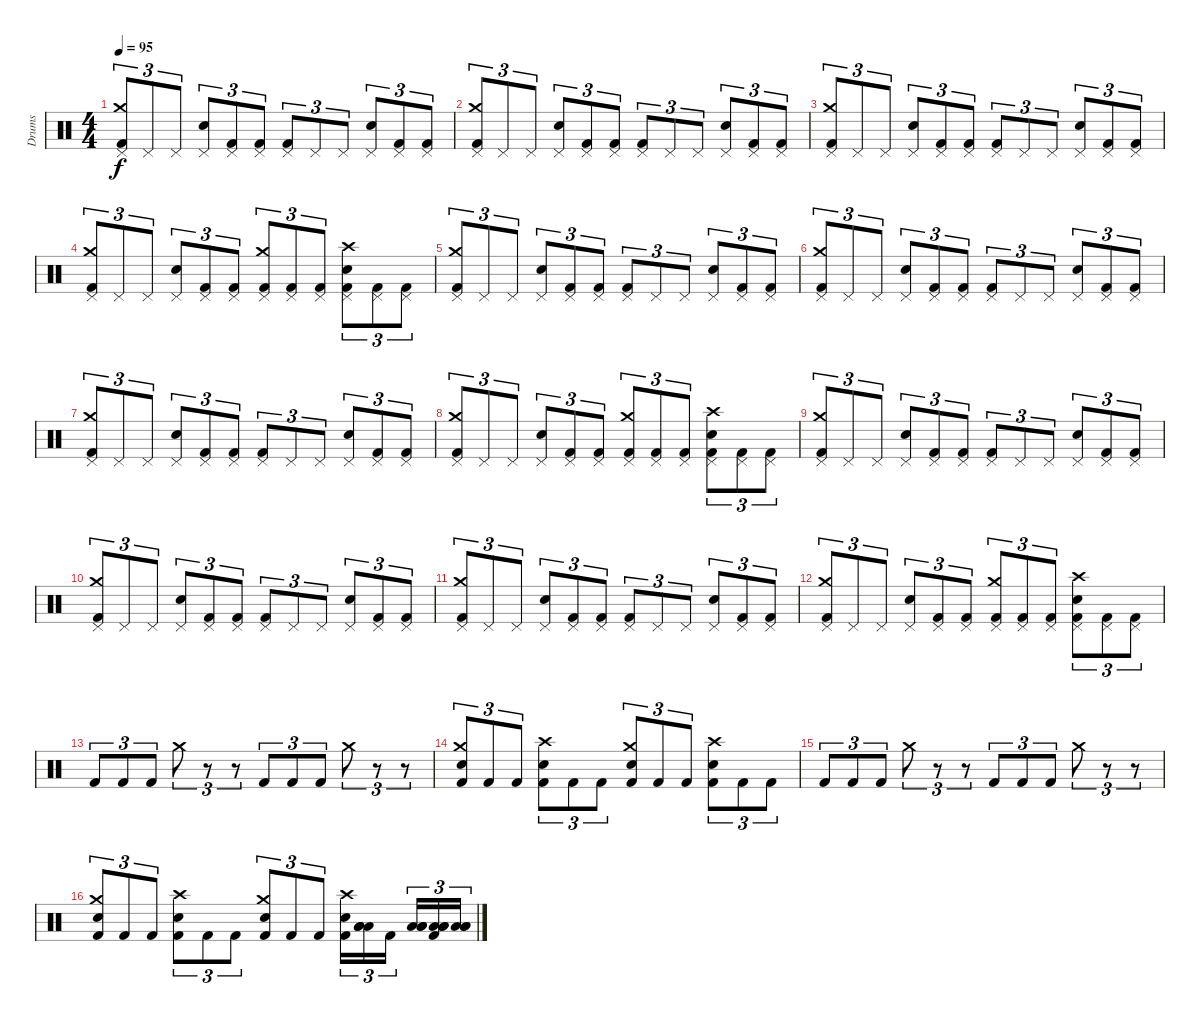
\track ("Drums" "Drums") {instrument percussion}
\staff {score}
\articulation defaults
\ts (4 4)
\tempo 95
\clef neutral
\ks c
("Kick (hit) 2" "Crash medium (hit)" "Pedal Hi-Hat (hit)").8{tu (3 2) dy f} "Pedal Hi-Hat (hit)".8{tu (3 2)} "Pedal Hi-Hat (hit)".8{tu (3 2)} ("Snare (hit) 2" "Pedal Hi-Hat (hit)").8{tu (3 2)} ("Kick (hit) 2" "Pedal Hi-Hat (hit)").8{tu (3 2)} ("Kick (hit) 2" "Pedal Hi-Hat (hit)").8{tu (3 2)} ("Kick (hit) 2" "Pedal Hi-Hat (hit)").8{tu (3 2)} "Pedal Hi-Hat (hit)".8{tu (3 2)} "Pedal Hi-Hat (hit)".8{tu (3 2)} ("Snare (hit) 2" "Pedal Hi-Hat (hit)").8{tu (3 2)} ("Kick (hit) 2" "Pedal Hi-Hat (hit)").8{tu (3 2)} ("Kick (hit) 2" "Pedal Hi-Hat (hit)").8{tu (3 2)} |
("Kick (hit) 2" "Crash medium (hit)" "Pedal Hi-Hat (hit)").8{tu (3 2)} "Pedal Hi-Hat (hit)".8{tu (3 2)} "Pedal Hi-Hat (hit)".8{tu (3 2)} ("Snare (hit) 2" "Pedal Hi-Hat (hit)").8{tu (3 2)} ("Kick (hit) 2" "Pedal Hi-Hat (hit)").8{tu (3 2)} ("Kick (hit) 2" "Pedal Hi-Hat (hit)").8{tu (3 2)} ("Kick (hit) 2" "Pedal Hi-Hat (hit)").8{tu (3 2)} "Pedal Hi-Hat (hit)".8{tu (3 2)} "Pedal Hi-Hat (hit)".8{tu (3 2)} ("Snare (hit) 2" "Pedal Hi-Hat (hit)").8{tu (3 2)} ("Kick (hit) 2" "Pedal Hi-Hat (hit)").8{tu (3 2)} ("Kick (hit) 2" "Pedal Hi-Hat (hit)").8{tu (3 2)} |
("Kick (hit) 2" "Crash medium (hit)" "Pedal Hi-Hat (hit)").8{tu (3 2)} "Pedal Hi-Hat (hit)".8{tu (3 2)} "Pedal Hi-Hat (hit)".8{tu (3 2)} ("Snare (hit) 2" "Pedal Hi-Hat (hit)").8{tu (3 2)} ("Kick (hit) 2" "Pedal Hi-Hat (hit)").8{tu (3 2)} ("Kick (hit) 2" "Pedal Hi-Hat (hit)").8{tu (3 2)} ("Kick (hit) 2" "Pedal Hi-Hat (hit)").8{tu (3 2)} "Pedal Hi-Hat (hit)".8{tu (3 2)} "Pedal Hi-Hat (hit)".8{tu (3 2)} ("Snare (hit) 2" "Pedal Hi-Hat (hit)").8{tu (3 2)} ("Kick (hit) 2" "Pedal Hi-Hat (hit)").8{tu (3 2)} ("Kick (hit) 2" "Pedal Hi-Hat (hit)").8{tu (3 2)} |
("Kick (hit) 2" "Crash medium (hit)" "Pedal Hi-Hat (hit)").8{tu (3 2)} "Pedal Hi-Hat (hit)".8{tu (3 2)} "Pedal Hi-Hat (hit)".8{tu (3 2)} ("Snare (hit) 2" "Pedal Hi-Hat (hit)").8{tu (3 2)} ("Kick (hit) 2" "Pedal Hi-Hat (hit)").8{tu (3 2)} ("Kick (hit) 2" "Pedal Hi-Hat (hit)").8{tu (3 2)} ("Kick (hit) 2" "Crash medium (hit)" "Pedal Hi-Hat (hit)").8{tu (3 2)} ("Kick (hit) 2" "Pedal Hi-Hat (hit)").8{tu (3 2)} ("Kick (hit) 2" "Pedal Hi-Hat (hit)").8{tu (3 2)} ("Kick (hit) 2" "Crash high (hit)" "Snare (hit) 2" "Pedal Hi-Hat (hit)").8{tu (3 2)} ("Kick (hit) 2" "Pedal Hi-Hat (hit)").8{tu (3 2)} ("Kick (hit) 2" "Pedal Hi-Hat (hit)").8{tu (3 2)} |
("Kick (hit) 2" "Crash medium (hit)" "Pedal Hi-Hat (hit)").8{tu (3 2)} "Pedal Hi-Hat (hit)".8{tu (3 2)} "Pedal Hi-Hat (hit)".8{tu (3 2)} ("Snare (hit) 2" "Pedal Hi-Hat (hit)").8{tu (3 2)} ("Kick (hit) 2" "Pedal Hi-Hat (hit)").8{tu (3 2)} ("Kick (hit) 2" "Pedal Hi-Hat (hit)").8{tu (3 2)} ("Kick (hit) 2" "Pedal Hi-Hat (hit)").8{tu (3 2)} "Pedal Hi-Hat (hit)".8{tu (3 2)} "Pedal Hi-Hat (hit)".8{tu (3 2)} ("Snare (hit) 2" "Pedal Hi-Hat (hit)").8{tu (3 2)} ("Kick (hit) 2" "Pedal Hi-Hat (hit)").8{tu (3 2)} ("Kick (hit) 2" "Pedal Hi-Hat (hit)").8{tu (3 2)} |
("Kick (hit) 2" "Crash medium (hit)" "Pedal Hi-Hat (hit)").8{tu (3 2)} "Pedal Hi-Hat (hit)".8{tu (3 2)} "Pedal Hi-Hat (hit)".8{tu (3 2)} ("Snare (hit) 2" "Pedal Hi-Hat (hit)").8{tu (3 2)} ("Kick (hit) 2" "Pedal Hi-Hat (hit)").8{tu (3 2)} ("Kick (hit) 2" "Pedal Hi-Hat (hit)").8{tu (3 2)} ("Kick (hit) 2" "Pedal Hi-Hat (hit)").8{tu (3 2)} "Pedal Hi-Hat (hit)".8{tu (3 2)} "Pedal Hi-Hat (hit)".8{tu (3 2)} ("Snare (hit) 2" "Pedal Hi-Hat (hit)").8{tu (3 2)} ("Kick (hit) 2" "Pedal Hi-Hat (hit)").8{tu (3 2)} ("Kick (hit) 2" "Pedal Hi-Hat (hit)").8{tu (3 2)} |
("Kick (hit) 2" "Crash medium (hit)" "Pedal Hi-Hat (hit)").8{tu (3 2)} "Pedal Hi-Hat (hit)".8{tu (3 2)} "Pedal Hi-Hat (hit)".8{tu (3 2)} ("Snare (hit) 2" "Pedal Hi-Hat (hit)").8{tu (3 2)} ("Kick (hit) 2" "Pedal Hi-Hat (hit)").8{tu (3 2)} ("Kick (hit) 2" "Pedal Hi-Hat (hit)").8{tu (3 2)} ("Kick (hit) 2" "Pedal Hi-Hat (hit)").8{tu (3 2)} "Pedal Hi-Hat (hit)".8{tu (3 2)} "Pedal Hi-Hat (hit)".8{tu (3 2)} ("Snare (hit) 2" "Pedal Hi-Hat (hit)").8{tu (3 2)} ("Kick (hit) 2" "Pedal Hi-Hat (hit)").8{tu (3 2)} ("Kick (hit) 2" "Pedal Hi-Hat (hit)").8{tu (3 2)} |
("Kick (hit) 2" "Crash medium (hit)" "Pedal Hi-Hat (hit)").8{tu (3 2)} "Pedal Hi-Hat (hit)".8{tu (3 2)} "Pedal Hi-Hat (hit)".8{tu (3 2)} ("Snare (hit) 2" "Pedal Hi-Hat (hit)").8{tu (3 2)} ("Kick (hit) 2" "Pedal Hi-Hat (hit)").8{tu (3 2)} ("Kick (hit) 2" "Pedal Hi-Hat (hit)").8{tu (3 2)} ("Kick (hit) 2" "Crash medium (hit)" "Pedal Hi-Hat (hit)").8{tu (3 2)} ("Kick (hit) 2" "Pedal Hi-Hat (hit)").8{tu (3 2)} ("Kick (hit) 2" "Pedal Hi-Hat (hit)").8{tu (3 2)} ("Kick (hit) 2" "Crash high (hit)" "Snare (hit) 2" "Pedal Hi-Hat (hit)").8{tu (3 2)} ("Kick (hit) 2" "Pedal Hi-Hat (hit)").8{tu (3 2)} ("Kick (hit) 2" "Pedal Hi-Hat (hit)").8{tu (3 2)} |
("Kick (hit) 2" "Crash medium (hit)" "Pedal Hi-Hat (hit)").8{tu (3 2)} "Pedal Hi-Hat (hit)".8{tu (3 2)} "Pedal Hi-Hat (hit)".8{tu (3 2)} ("Snare (hit) 2" "Pedal Hi-Hat (hit)").8{tu (3 2)} ("Kick (hit) 2" "Pedal Hi-Hat (hit)").8{tu (3 2)} ("Kick (hit) 2" "Pedal Hi-Hat (hit)").8{tu (3 2)} ("Kick (hit) 2" "Pedal Hi-Hat (hit)").8{tu (3 2)} "Pedal Hi-Hat (hit)".8{tu (3 2)} "Pedal Hi-Hat (hit)".8{tu (3 2)} ("Snare (hit) 2" "Pedal Hi-Hat (hit)").8{tu (3 2)} ("Kick (hit) 2" "Pedal Hi-Hat (hit)").8{tu (3 2)} ("Kick (hit) 2" "Pedal Hi-Hat (hit)").8{tu (3 2)} |
("Kick (hit) 2" "Crash medium (hit)" "Pedal Hi-Hat (hit)").8{tu (3 2)} "Pedal Hi-Hat (hit)".8{tu (3 2)} "Pedal Hi-Hat (hit)".8{tu (3 2)} ("Snare (hit) 2" "Pedal Hi-Hat (hit)").8{tu (3 2)} ("Kick (hit) 2" "Pedal Hi-Hat (hit)").8{tu (3 2)} ("Kick (hit) 2" "Pedal Hi-Hat (hit)").8{tu (3 2)} ("Kick (hit) 2" "Pedal Hi-Hat (hit)").8{tu (3 2)} "Pedal Hi-Hat (hit)".8{tu (3 2)} "Pedal Hi-Hat (hit)".8{tu (3 2)} ("Snare (hit) 2" "Pedal Hi-Hat (hit)").8{tu (3 2)} ("Kick (hit) 2" "Pedal Hi-Hat (hit)").8{tu (3 2)} ("Kick (hit) 2" "Pedal Hi-Hat (hit)").8{tu (3 2)} |
("Kick (hit) 2" "Crash medium (hit)" "Pedal Hi-Hat (hit)").8{tu (3 2)} "Pedal Hi-Hat (hit)".8{tu (3 2)} "Pedal Hi-Hat (hit)".8{tu (3 2)} ("Snare (hit) 2" "Pedal Hi-Hat (hit)").8{tu (3 2)} ("Kick (hit) 2" "Pedal Hi-Hat (hit)").8{tu (3 2)} ("Kick (hit) 2" "Pedal Hi-Hat (hit)").8{tu (3 2)} ("Kick (hit) 2" "Pedal Hi-Hat (hit)").8{tu (3 2)} "Pedal Hi-Hat (hit)".8{tu (3 2)} "Pedal Hi-Hat (hit)".8{tu (3 2)} ("Snare (hit) 2" "Pedal Hi-Hat (hit)").8{tu (3 2)} ("Kick (hit) 2" "Pedal Hi-Hat (hit)").8{tu (3 2)} ("Kick (hit) 2" "Pedal Hi-Hat (hit)").8{tu (3 2)} |
("Kick (hit) 2" "Crash medium (hit)" "Pedal Hi-Hat (hit)").8{tu (3 2)} "Pedal Hi-Hat (hit)".8{tu (3 2)} "Pedal Hi-Hat (hit)".8{tu (3 2)} ("Snare (hit) 2" "Pedal Hi-Hat (hit)").8{tu (3 2)} ("Kick (hit) 2" "Pedal Hi-Hat (hit)").8{tu (3 2)} ("Kick (hit) 2" "Pedal Hi-Hat (hit)").8{tu (3 2)} ("Kick (hit) 2" "Crash medium (hit)" "Pedal Hi-Hat (hit)").8{tu (3 2)} ("Kick (hit) 2" "Pedal Hi-Hat (hit)").8{tu (3 2)} ("Kick (hit) 2" "Pedal Hi-Hat (hit)").8{tu (3 2)} ("Kick (hit) 2" "Crash high (hit)" "Snare (hit) 2" "Pedal Hi-Hat (hit)").8{tu (3 2)} ("Kick (hit) 2" "Pedal Hi-Hat (hit)").8{tu (3 2)} ("Kick (hit) 2" "Pedal Hi-Hat (hit)").8{tu (3 2)} |
"Kick (hit) 2".8{tu (3 2)} "Kick (hit) 2".8{tu (3 2)} "Kick (hit) 2".8{tu (3 2)} "Crash medium (hit)".8{tu (3 2)} r.8{tu (3 2)} r.8{tu (3 2)} "Kick (hit) 2".8{tu (3 2)} "Kick (hit) 2".8{tu (3 2)} "Kick (hit) 2".8{tu (3 2)} "Crash medium (hit)".8{tu (3 2)} r.8{tu (3 2)} r.8{tu (3 2)} |
("Kick (hit) 2" "Crash medium (hit)" "Snare (hit) 2").8{tu (3 2)} "Kick (hit) 2".8{tu (3 2)} "Kick (hit) 2".8{tu (3 2)} ("Kick (hit) 2" "Crash high (hit)" "Snare (hit) 2").8{tu (3 2)} "Kick (hit) 2".8{tu (3 2)} "Kick (hit) 2".8{tu (3 2)} ("Kick (hit) 2" "Crash medium (hit)" "Snare (hit) 2").8{tu (3 2)} "Kick (hit) 2".8{tu (3 2)} "Kick (hit) 2".8{tu (3 2)} ("Kick (hit) 2" "Crash high (hit)" "Snare (hit) 2").8{tu (3 2)} "Kick (hit) 2".8{tu (3 2)} "Kick (hit) 2".8{tu (3 2)} |
"Kick (hit) 2".8{tu (3 2)} "Kick (hit) 2".8{tu (3 2)} "Kick (hit) 2".8{tu (3 2)} "Crash medium (hit)".8{tu (3 2)} r.8{tu (3 2)} r.8{tu (3 2)} "Kick (hit) 2".8{tu (3 2)} "Kick (hit) 2".8{tu (3 2)} "Kick (hit) 2".8{tu (3 2)} "Crash medium (hit)".8{tu (3 2)} r.8{tu (3 2)} r.8{tu (3 2)} |
("Kick (hit) 2" "Crash medium (hit)" "Snare (hit) 2").8{tu (3 2)} "Kick (hit) 2".8{tu (3 2)} "Kick (hit) 2".8{tu (3 2)} ("Kick (hit) 2" "Crash high (hit)" "Snare (hit) 2").8{tu (3 2)} "Kick (hit) 2".8{tu (3 2)} "Kick (hit) 2".8{tu (3 2)} ("Kick (hit) 2" "Crash medium (hit)" "Snare (hit) 2").8{tu (3 2)} "Kick (hit) 2".8{tu (3 2)} "Kick (hit) 2".8{tu (3 2)} ("Kick (hit) 2" "Crash high (hit)" "Snare (hit) 2").16{tu (3 2)} ("Low Tom (hit)" "Low Tom (hit)" "Low Tom (hit)").16{tu (3 2)} "Kick (hit) 2".16{tu (3 2)} ("Low Tom (hit)" "Low Tom (hit)" "Low Tom (hit)").16{tu (3 2)} ("Kick (hit) 2" "Low Tom (hit)" "Low Tom (hit)" "Low Tom (hit)").16{tu (3 2)} ("Low Floor Tom (hit)" "Low Floor Tom (hit)" "Low Floor Tom (hit)").16{tu (3 2)}
